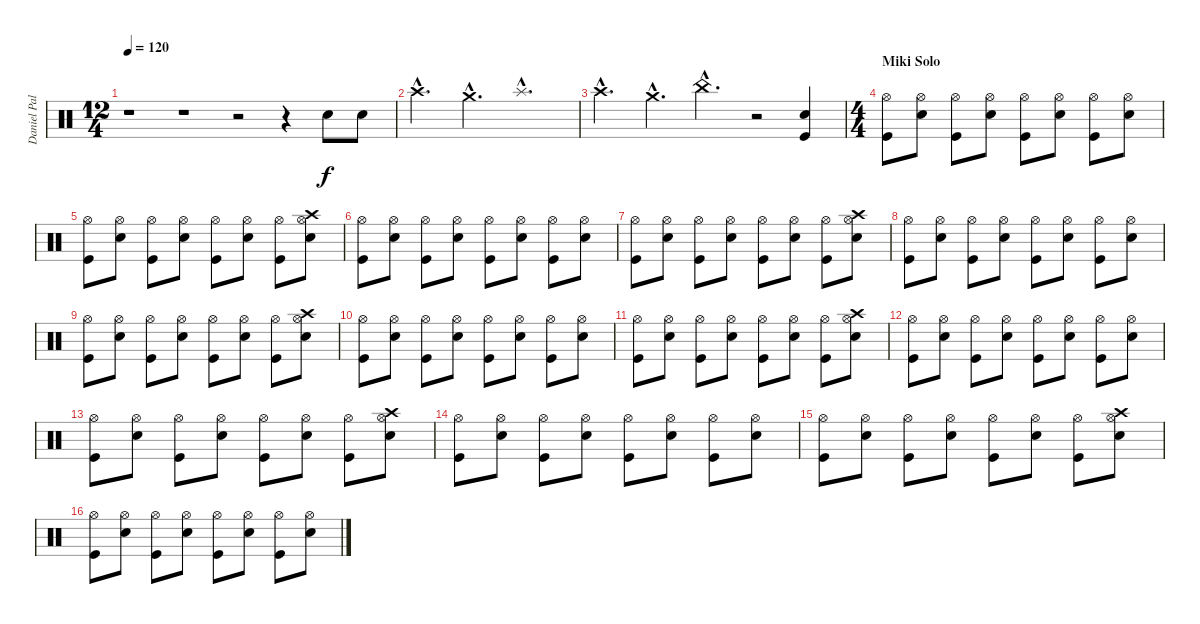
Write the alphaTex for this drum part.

\track ("Daniel Pal" "Daniel Pal") {instrument percussion}
\staff {score}
\articulation defaults
\ts (12 4)
\tempo 120
\clef neutral
\ks c
r.1{dy f} r.1 r.2 r.4 "Electric Snare (hit)".8 "Electric Snare (hit)".8 |
"Crash high (hit)"{hac}.2{d} "Crash medium (hit)"{hac}.2{d} "Splash (hit)"{hac}.1{d} |
"Crash high (hit)"{hac}.2{d} "Crash medium (hit)"{hac}.2{d} "China (hit)"{hac}.2{d} r.2 ("Electric Snare (hit)" "Kick (hit)").4 |
\ts (4 4)
\section ("" "Miki Solo")
("Hi-Hat (open)" "Kick (hit)").8 ("Hi-Hat (open)" "Electric Snare (hit)").8 ("Hi-Hat (open)" "Kick (hit)").8 ("Hi-Hat (open)" "Electric Snare (hit)").8 ("Hi-Hat (open)" "Kick (hit)").8 ("Hi-Hat (open)" "Electric Snare (hit)").8 ("Hi-Hat (open)" "Kick (hit)").8 ("Hi-Hat (open)" "Electric Snare (hit)").8 |
("Hi-Hat (open)" "Kick (hit)").8 ("Hi-Hat (open)" "Electric Snare (hit)").8 ("Hi-Hat (open)" "Kick (hit)").8 ("Hi-Hat (open)" "Electric Snare (hit)").8 ("Hi-Hat (open)" "Kick (hit)").8 ("Hi-Hat (open)" "Electric Snare (hit)").8 ("Hi-Hat (open)" "Kick (hit)").8 ("Crash high (hit)" "Hi-Hat (open)" "Electric Snare (hit)").8 |
("Hi-Hat (open)" "Kick (hit)").8 ("Hi-Hat (open)" "Electric Snare (hit)").8 ("Hi-Hat (open)" "Kick (hit)").8 ("Hi-Hat (open)" "Electric Snare (hit)").8 ("Hi-Hat (open)" "Kick (hit)").8 ("Hi-Hat (open)" "Electric Snare (hit)").8 ("Hi-Hat (open)" "Kick (hit)").8 ("Hi-Hat (open)" "Electric Snare (hit)").8 |
("Hi-Hat (open)" "Kick (hit)").8 ("Hi-Hat (open)" "Electric Snare (hit)").8 ("Hi-Hat (open)" "Kick (hit)").8 ("Hi-Hat (open)" "Electric Snare (hit)").8 ("Hi-Hat (open)" "Kick (hit)").8 ("Hi-Hat (open)" "Electric Snare (hit)").8 ("Hi-Hat (open)" "Kick (hit)").8 ("Crash high (hit)" "Hi-Hat (open)" "Electric Snare (hit)").8 |
("Hi-Hat (open)" "Kick (hit)").8 ("Hi-Hat (open)" "Electric Snare (hit)").8 ("Hi-Hat (open)" "Kick (hit)").8 ("Hi-Hat (open)" "Electric Snare (hit)").8 ("Hi-Hat (open)" "Kick (hit)").8 ("Hi-Hat (open)" "Electric Snare (hit)").8 ("Hi-Hat (open)" "Kick (hit)").8 ("Hi-Hat (open)" "Electric Snare (hit)").8 |
("Hi-Hat (open)" "Kick (hit)").8 ("Hi-Hat (open)" "Electric Snare (hit)").8 ("Hi-Hat (open)" "Kick (hit)").8 ("Hi-Hat (open)" "Electric Snare (hit)").8 ("Hi-Hat (open)" "Kick (hit)").8 ("Hi-Hat (open)" "Electric Snare (hit)").8 ("Hi-Hat (open)" "Kick (hit)").8 ("Crash high (hit)" "Hi-Hat (open)" "Electric Snare (hit)").8 |
("Hi-Hat (open)" "Kick (hit)").8 ("Hi-Hat (open)" "Electric Snare (hit)").8 ("Hi-Hat (open)" "Kick (hit)").8 ("Hi-Hat (open)" "Electric Snare (hit)").8 ("Hi-Hat (open)" "Kick (hit)").8 ("Hi-Hat (open)" "Electric Snare (hit)").8 ("Hi-Hat (open)" "Kick (hit)").8 ("Hi-Hat (open)" "Electric Snare (hit)").8 |
("Hi-Hat (open)" "Kick (hit)").8 ("Hi-Hat (open)" "Electric Snare (hit)").8 ("Hi-Hat (open)" "Kick (hit)").8 ("Hi-Hat (open)" "Electric Snare (hit)").8 ("Hi-Hat (open)" "Kick (hit)").8 ("Hi-Hat (open)" "Electric Snare (hit)").8 ("Hi-Hat (open)" "Kick (hit)").8 ("Crash high (hit)" "Hi-Hat (open)" "Electric Snare (hit)").8 |
("Hi-Hat (open)" "Kick (hit)").8 ("Hi-Hat (open)" "Electric Snare (hit)").8 ("Hi-Hat (open)" "Kick (hit)").8 ("Hi-Hat (open)" "Electric Snare (hit)").8 ("Hi-Hat (open)" "Kick (hit)").8 ("Hi-Hat (open)" "Electric Snare (hit)").8 ("Hi-Hat (open)" "Kick (hit)").8 ("Hi-Hat (open)" "Electric Snare (hit)").8 |
("Hi-Hat (open)" "Kick (hit)").8 ("Hi-Hat (open)" "Electric Snare (hit)").8 ("Hi-Hat (open)" "Kick (hit)").8 ("Hi-Hat (open)" "Electric Snare (hit)").8 ("Hi-Hat (open)" "Kick (hit)").8 ("Hi-Hat (open)" "Electric Snare (hit)").8 ("Hi-Hat (open)" "Kick (hit)").8 ("Crash high (hit)" "Hi-Hat (open)" "Electric Snare (hit)").8 |
("Hi-Hat (open)" "Kick (hit)").8 ("Hi-Hat (open)" "Electric Snare (hit)").8 ("Hi-Hat (open)" "Kick (hit)").8 ("Hi-Hat (open)" "Electric Snare (hit)").8 ("Hi-Hat (open)" "Kick (hit)").8 ("Hi-Hat (open)" "Electric Snare (hit)").8 ("Hi-Hat (open)" "Kick (hit)").8 ("Hi-Hat (open)" "Electric Snare (hit)").8 |
("Hi-Hat (open)" "Kick (hit)").8 ("Hi-Hat (open)" "Electric Snare (hit)").8 ("Hi-Hat (open)" "Kick (hit)").8 ("Hi-Hat (open)" "Electric Snare (hit)").8 ("Hi-Hat (open)" "Kick (hit)").8 ("Hi-Hat (open)" "Electric Snare (hit)").8 ("Hi-Hat (open)" "Kick (hit)").8 ("Crash high (hit)" "Hi-Hat (open)" "Electric Snare (hit)").8 |
("Hi-Hat (open)" "Kick (hit)").8 ("Hi-Hat (open)" "Electric Snare (hit)").8 ("Hi-Hat (open)" "Kick (hit)").8 ("Hi-Hat (open)" "Electric Snare (hit)").8 ("Hi-Hat (open)" "Kick (hit)").8 ("Hi-Hat (open)" "Electric Snare (hit)").8 ("Hi-Hat (open)" "Kick (hit)").8 ("Hi-Hat (open)" "Electric Snare (hit)").8
